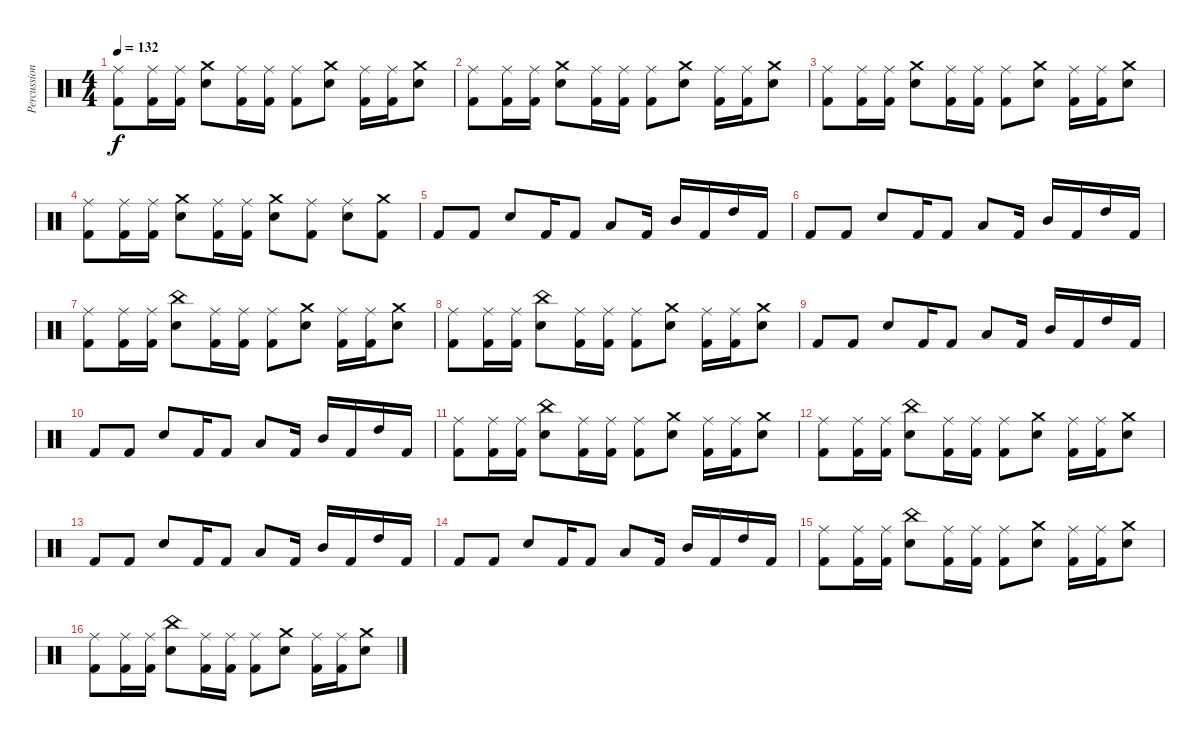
\track ("Percussion" "Percussion") {instrument percussion}
\staff {score}
\articulation defaults
\ts (4 4)
\tempo 132
\clef neutral
\ks c
("Ride (middle)" "Kick (hit) 2").8{dy f} ("Ride (middle)" "Kick (hit) 2").16 ("Ride (middle)" "Kick (hit) 2").16 ("Crash medium (hit)" "Electric Snare (hit)").8 ("Ride (middle)" "Kick (hit) 2").16 ("Ride (middle)" "Kick (hit) 2").16 ("Ride (middle)" "Kick (hit) 2").8 ("Crash medium (hit)" "Electric Snare (hit)").8 ("Ride (middle)" "Kick (hit) 2").16 ("Ride (middle)" "Kick (hit) 2").16 ("Crash medium (hit)" "Electric Snare (hit)").8 |
("Ride (middle)" "Kick (hit) 2").8 ("Ride (middle)" "Kick (hit) 2").16 ("Ride (middle)" "Kick (hit) 2").16 ("Crash medium (hit)" "Electric Snare (hit)").8 ("Ride (middle)" "Kick (hit) 2").16 ("Ride (middle)" "Kick (hit) 2").16 ("Ride (middle)" "Kick (hit) 2").8 ("Crash medium (hit)" "Electric Snare (hit)").8 ("Ride (middle)" "Kick (hit) 2").16 ("Ride (middle)" "Kick (hit) 2").16 ("Crash medium (hit)" "Electric Snare (hit)").8 |
("Ride (middle)" "Kick (hit) 2").8 ("Ride (middle)" "Kick (hit) 2").16 ("Ride (middle)" "Kick (hit) 2").16 ("Crash medium (hit)" "Electric Snare (hit)").8 ("Ride (middle)" "Kick (hit) 2").16 ("Ride (middle)" "Kick (hit) 2").16 ("Ride (middle)" "Kick (hit) 2").8 ("Crash medium (hit)" "Electric Snare (hit)").8 ("Ride (middle)" "Kick (hit) 2").16 ("Ride (middle)" "Kick (hit) 2").16 ("Crash medium (hit)" "Electric Snare (hit)").8 |
("Ride (middle)" "Kick (hit) 2").8 ("Ride (middle)" "Kick (hit) 2").16 ("Ride (middle)" "Kick (hit) 2").16 ("Crash medium (hit)" "Electric Snare (hit)").8 ("Ride (middle)" "Kick (hit) 2").16 ("Ride (middle)" "Kick (hit) 2").16 ("Crash medium (hit)" "Electric Snare (hit)").8 ("Ride (middle)" "Kick (hit) 2").8 ("Ride (middle)" "Electric Snare (hit)").8 ("Crash medium (hit)" "Kick (hit) 2").8 |
"Kick (hit) 2".8 "Kick (hit) 2".8 "Electric Snare (hit)".8 "Kick (hit) 2".16 "Kick (hit) 2".8 "Low Tom (hit)".8 "Kick (hit) 2".16 "Mid Tom (hit)".16 "Kick (hit) 2".16 "High Tom (hit)".16 "Kick (hit) 2".16 |
"Kick (hit) 2".8 "Kick (hit) 2".8 "Electric Snare (hit)".8 "Kick (hit) 2".16 "Kick (hit) 2".8 "Low Tom (hit)".8 "Kick (hit) 2".16 "Mid Tom (hit)".16 "Kick (hit) 2".16 "High Tom (hit)".16 "Kick (hit) 2".16 |
("Ride (middle)" "Kick (hit) 2").8 ("Ride (middle)" "Kick (hit) 2").16 ("Ride (middle)" "Kick (hit) 2").16 ("China (hit)" "Electric Snare (hit)").8 ("Ride (middle)" "Kick (hit) 2").16 ("Ride (middle)" "Kick (hit) 2").16 ("Ride (middle)" "Kick (hit) 2").8 ("Crash medium (hit)" "Electric Snare (hit)").8 ("Ride (middle)" "Kick (hit) 2").16 ("Ride (middle)" "Kick (hit) 2").16 ("Crash medium (hit)" "Electric Snare (hit)").8 |
("Ride (middle)" "Kick (hit) 2").8 ("Ride (middle)" "Kick (hit) 2").16 ("Ride (middle)" "Kick (hit) 2").16 ("China (hit)" "Electric Snare (hit)").8 ("Ride (middle)" "Kick (hit) 2").16 ("Ride (middle)" "Kick (hit) 2").16 ("Ride (middle)" "Kick (hit) 2").8 ("Crash medium (hit)" "Electric Snare (hit)").8 ("Ride (middle)" "Kick (hit) 2").16 ("Ride (middle)" "Kick (hit) 2").16 ("Crash medium (hit)" "Electric Snare (hit)").8 |
"Kick (hit) 2".8 "Kick (hit) 2".8 "Electric Snare (hit)".8 "Kick (hit) 2".16 "Kick (hit) 2".8 "Low Tom (hit)".8 "Kick (hit) 2".16 "Mid Tom (hit)".16 "Kick (hit) 2".16 "High Tom (hit)".16 "Kick (hit) 2".16 |
"Kick (hit) 2".8 "Kick (hit) 2".8 "Electric Snare (hit)".8 "Kick (hit) 2".16 "Kick (hit) 2".8 "Low Tom (hit)".8 "Kick (hit) 2".16 "Mid Tom (hit)".16 "Kick (hit) 2".16 "High Tom (hit)".16 "Kick (hit) 2".16 |
("Ride (middle)" "Kick (hit) 2").8 ("Ride (middle)" "Kick (hit) 2").16 ("Ride (middle)" "Kick (hit) 2").16 ("China (hit)" "Electric Snare (hit)").8 ("Ride (middle)" "Kick (hit) 2").16 ("Ride (middle)" "Kick (hit) 2").16 ("Ride (middle)" "Kick (hit) 2").8 ("Crash medium (hit)" "Electric Snare (hit)").8 ("Ride (middle)" "Kick (hit) 2").16 ("Ride (middle)" "Kick (hit) 2").16 ("Crash medium (hit)" "Electric Snare (hit)").8 |
("Ride (middle)" "Kick (hit) 2").8 ("Ride (middle)" "Kick (hit) 2").16 ("Ride (middle)" "Kick (hit) 2").16 ("China (hit)" "Electric Snare (hit)").8 ("Ride (middle)" "Kick (hit) 2").16 ("Ride (middle)" "Kick (hit) 2").16 ("Ride (middle)" "Kick (hit) 2").8 ("Crash medium (hit)" "Electric Snare (hit)").8 ("Ride (middle)" "Kick (hit) 2").16 ("Ride (middle)" "Kick (hit) 2").16 ("Crash medium (hit)" "Electric Snare (hit)").8 |
"Kick (hit) 2".8 "Kick (hit) 2".8 "Electric Snare (hit)".8 "Kick (hit) 2".16 "Kick (hit) 2".8 "Low Tom (hit)".8 "Kick (hit) 2".16 "Mid Tom (hit)".16 "Kick (hit) 2".16 "High Tom (hit)".16 "Kick (hit) 2".16 |
"Kick (hit) 2".8 "Kick (hit) 2".8 "Electric Snare (hit)".8 "Kick (hit) 2".16 "Kick (hit) 2".8 "Low Tom (hit)".8 "Kick (hit) 2".16 "Mid Tom (hit)".16 "Kick (hit) 2".16 "High Tom (hit)".16 "Kick (hit) 2".16 |
("Ride (middle)" "Kick (hit) 2").8 ("Ride (middle)" "Kick (hit) 2").16 ("Ride (middle)" "Kick (hit) 2").16 ("China (hit)" "Electric Snare (hit)").8 ("Ride (middle)" "Kick (hit) 2").16 ("Ride (middle)" "Kick (hit) 2").16 ("Ride (middle)" "Kick (hit) 2").8 ("Crash medium (hit)" "Electric Snare (hit)").8 ("Ride (middle)" "Kick (hit) 2").16 ("Ride (middle)" "Kick (hit) 2").16 ("Crash medium (hit)" "Electric Snare (hit)").8 |
("Ride (middle)" "Kick (hit) 2").8 ("Ride (middle)" "Kick (hit) 2").16 ("Ride (middle)" "Kick (hit) 2").16 ("China (hit)" "Electric Snare (hit)").8 ("Ride (middle)" "Kick (hit) 2").16 ("Ride (middle)" "Kick (hit) 2").16 ("Ride (middle)" "Kick (hit) 2").8 ("Crash medium (hit)" "Electric Snare (hit)").8 ("Ride (middle)" "Kick (hit) 2").16 ("Ride (middle)" "Kick (hit) 2").16 ("Crash medium (hit)" "Electric Snare (hit)").8
